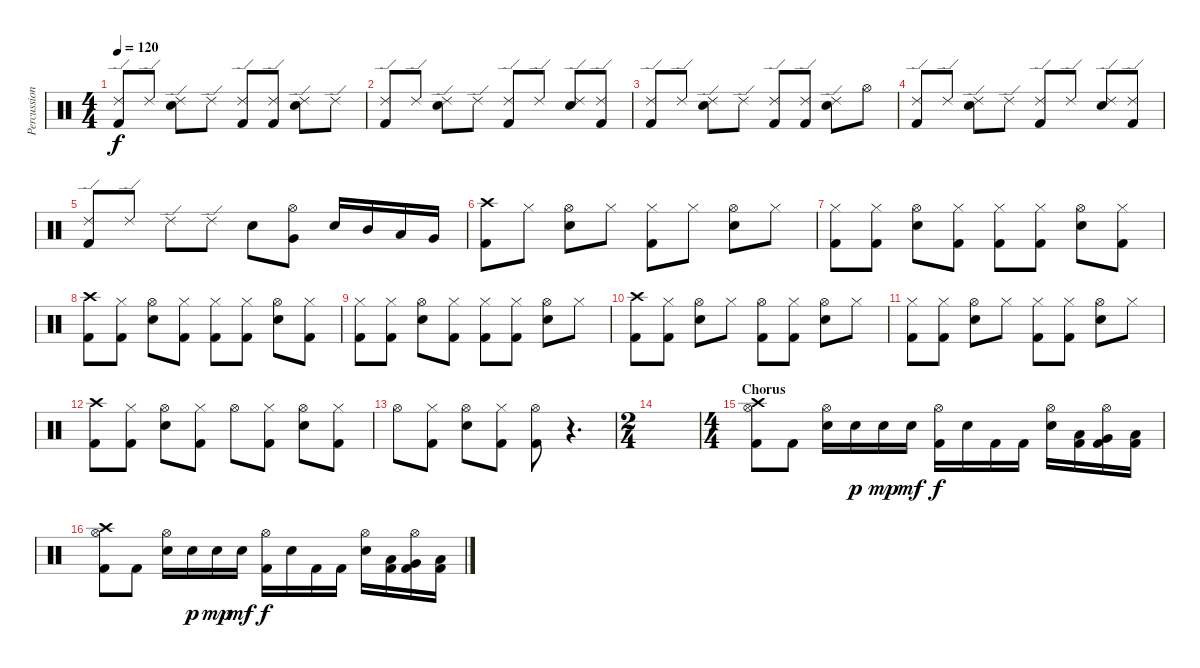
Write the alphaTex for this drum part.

\track ("Percussion" "Percussion") {instrument percussion}
\staff {score}
\articulation defaults
\ts (4 4)
\tempo 120
\clef neutral
\ks c
("Ride (edge) 2" "Kick (hit) 2").8{dy f} "Ride (edge) 2".8 ("Ride (edge) 2" "Electric Snare (hit)").8 "Ride (edge) 2".8 ("Ride (edge) 2" "Kick (hit) 2").8 ("Ride (edge) 2" "Kick (hit) 2").8 ("Ride (edge) 2" "Electric Snare (hit)").8 "Ride (edge) 2".8 |
("Ride (edge) 2" "Kick (hit) 2").8 "Ride (edge) 2".8 ("Ride (edge) 2" "Electric Snare (hit)").8 "Ride (edge) 2".8 ("Ride (edge) 2" "Kick (hit) 2").8 "Ride (edge) 2".8 ("Ride (edge) 2" "Electric Snare (hit)").8 ("Ride (edge) 2" "Kick (hit) 2").8 |
("Ride (edge) 2" "Kick (hit) 2").8 "Ride (edge) 2".8 ("Ride (edge) 2" "Electric Snare (hit)").8 "Ride (edge) 2".8 ("Ride (edge) 2" "Kick (hit) 2").8 ("Ride (edge) 2" "Kick (hit) 2").8 ("Ride (edge) 2" "Electric Snare (hit)").8 "Hi-Hat (open)".8 |
("Ride (edge) 2" "Kick (hit) 2").8 "Ride (edge) 2".8 ("Ride (edge) 2" "Electric Snare (hit)").8 "Ride (edge) 2".8 ("Ride (edge) 2" "Kick (hit) 2").8 "Ride (edge) 2".8 ("Ride (edge) 2" "Electric Snare (hit)").8 ("Ride (edge) 2" "Kick (hit) 2").8 |
("Ride (edge) 2" "Kick (hit) 2").8 "Ride (edge) 2".8 "Ride (edge) 2".8 "Ride (edge) 2".8 "Electric Snare (hit)".8 ("Hi-Hat (open)" "Very Low Tom (hit)").8 "Electric Snare (hit)".16 "Mid Tom (hit)".16 "Low Tom (hit)".16 "Very Low Tom (hit)".16 |
("Crash high (hit)" "Kick (hit) 2").8 "Hi-Hat (closed)".8 ("Hi-Hat (open)" "Electric Snare (hit)").8 "Hi-Hat (closed)".8 ("Hi-Hat (closed)" "Kick (hit) 2").8 "Hi-Hat (closed)".8 ("Hi-Hat (open)" "Electric Snare (hit)").8 "Hi-Hat (closed)".8 |
("Hi-Hat (closed)" "Kick (hit) 2").8 ("Hi-Hat (closed)" "Kick (hit) 2").8 ("Hi-Hat (open)" "Electric Snare (hit)").8 ("Hi-Hat (closed)" "Kick (hit) 2").8 ("Hi-Hat (closed)" "Kick (hit) 2").8 ("Hi-Hat (closed)" "Kick (hit) 2").8 ("Hi-Hat (open)" "Electric Snare (hit)").8 ("Hi-Hat (closed)" "Kick (hit) 2").8 |
("Crash high (hit)" "Kick (hit) 2").8 ("Hi-Hat (closed)" "Kick (hit) 2").8 ("Hi-Hat (open)" "Electric Snare (hit)").8 ("Hi-Hat (closed)" "Kick (hit) 2").8 ("Hi-Hat (closed)" "Kick (hit) 2").8 ("Hi-Hat (closed)" "Kick (hit) 2").8 ("Hi-Hat (open)" "Electric Snare (hit)").8 ("Hi-Hat (closed)" "Kick (hit) 2").8 |
("Hi-Hat (closed)" "Kick (hit) 2").8 ("Hi-Hat (closed)" "Kick (hit) 2").8 ("Hi-Hat (open)" "Electric Snare (hit)").8 ("Hi-Hat (closed)" "Kick (hit) 2").8 ("Hi-Hat (closed)" "Kick (hit) 2").8 ("Hi-Hat (closed)" "Kick (hit) 2").8 ("Hi-Hat (open)" "Electric Snare (hit)").8 "Hi-Hat (closed)".8 |
("Crash high (hit)" "Kick (hit) 2").8 ("Hi-Hat (closed)" "Kick (hit) 2").8 ("Hi-Hat (open)" "Electric Snare (hit)").8 "Hi-Hat (closed)".8 ("Hi-Hat (open)" "Kick (hit) 2").8 ("Hi-Hat (closed)" "Kick (hit) 2").8 ("Hi-Hat (open)" "Electric Snare (hit)").8 "Hi-Hat (closed)".8 |
("Hi-Hat (closed)" "Kick (hit) 2").8 ("Hi-Hat (closed)" "Kick (hit) 2").8 ("Hi-Hat (open)" "Electric Snare (hit)").8 "Hi-Hat (closed)".8 ("Hi-Hat (closed)" "Kick (hit) 2").8 ("Hi-Hat (closed)" "Kick (hit) 2").8 ("Hi-Hat (open)" "Electric Snare (hit)").8 "Hi-Hat (closed)".8 |
("Crash high (hit)" "Kick (hit) 2").8 ("Hi-Hat (closed)" "Kick (hit) 2").8 ("Hi-Hat (open)" "Electric Snare (hit)").8 ("Hi-Hat (closed)" "Kick (hit) 2").8 "Hi-Hat (open)".8 ("Hi-Hat (closed)" "Kick (hit) 2").8 ("Hi-Hat (open)" "Electric Snare (hit)").8 ("Hi-Hat (closed)" "Kick (hit) 2").8 |
"Hi-Hat (open)".8 ("Hi-Hat (closed)" "Kick (hit) 2").8 ("Hi-Hat (open)" "Electric Snare (hit)").8 ("Hi-Hat (closed)" "Kick (hit) 2").8 ("Hi-Hat (open)" "Kick (hit) 2").8 r.4{d} |
\ts (2 4)
|
\ts (4 4)
\section ("" "Chorus")
("Crash high (hit)" "Hi-Hat (open)" "Kick (hit) 2").8 "Kick (hit) 2".8 ("Hi-Hat (open)" "Electric Snare (hit)").16 "Electric Snare (hit)".16{dy p} "Electric Snare (hit)".16{dy mp} "Electric Snare (hit)".16{dy mf} ("Hi-Hat (open)" "Kick (hit) 2").16{dy f} "Electric Snare (hit)".16 "Kick (hit) 2".16 "Kick (hit) 2".16 ("Hi-Hat (open)" "Electric Snare (hit)").16 ("Low Tom (hit)" "Kick (hit) 2").16 ("Hi-Hat (open)" "Very Low Tom (hit)" "Kick (hit) 2").16 ("Low Floor Tom (hit)" "Kick (hit) 2").16 |
("Crash high (hit)" "Hi-Hat (open)" "Kick (hit) 2").8 "Kick (hit) 2".8 ("Hi-Hat (open)" "Electric Snare (hit)").16 "Electric Snare (hit)".16{dy p} "Electric Snare (hit)".16{dy mp} "Electric Snare (hit)".16{dy mf} ("Hi-Hat (open)" "Kick (hit) 2").16{dy f} "Electric Snare (hit)".16 "Kick (hit) 2".16 "Kick (hit) 2".16 ("Hi-Hat (open)" "Electric Snare (hit)").16 ("Low Tom (hit)" "Kick (hit) 2").16 ("Hi-Hat (open)" "Very Low Tom (hit)" "Kick (hit) 2").16 ("Low Floor Tom (hit)" "Kick (hit) 2").16
